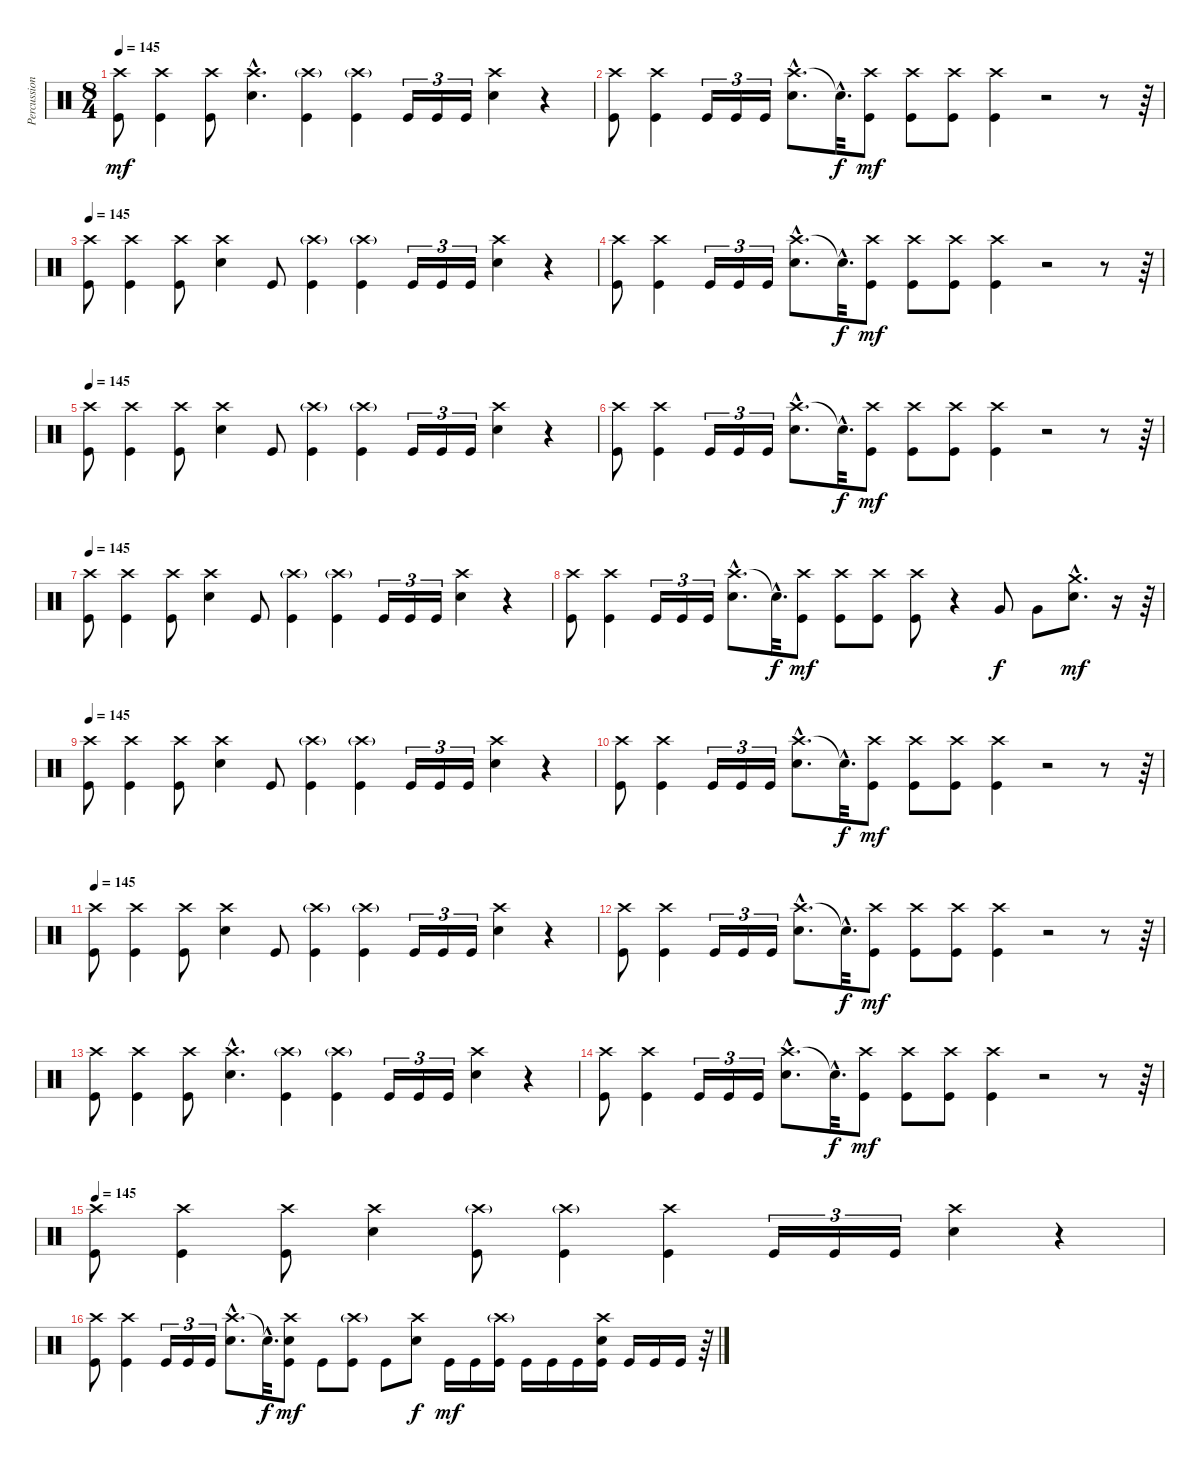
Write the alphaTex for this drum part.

\track ("Percussion" "Percussion") {instrument percussion}
\staff {score}
\articulation defaults
\ts (8 4)
\tempo 177
\tempo 145
\clef neutral
\ks c
("Crash high (hit)" "Kick (hit)").8{dy mf} ("Crash high (hit)" "Kick (hit)").4 ("Crash high (hit)" "Kick (hit)").8 ("Crash high (hit)"{hac} "Electric Snare (hit)"{hac}).4{d} ("Crash high (hit)"{g} "Kick (hit)").4 ("Crash high (hit)"{g} "Kick (hit)").4 "Kick (hit)".16{tu (3 2)} "Kick (hit)".16{tu (3 2)} "Kick (hit)".16{tu (3 2)} ("Crash high (hit)" "Electric Snare (hit)").4 r.4 |
("Crash high (hit)" "Kick (hit)").8 ("Crash high (hit)" "Kick (hit)").4 "Kick (hit)".16{tu (3 2)} "Kick (hit)".16{tu (3 2)} "Kick (hit)".16{tu (3 2)} ("Crash high (hit)"{hac} "Electric Snare (hit)"{hac}).8{d} "Snare (hit)"{hac t}.32{d dy f} ("Crash high (hit)" "Kick (hit)").8{dy mf} ("Crash high (hit)" "Kick (hit)").8 ("Crash high (hit)" "Kick (hit)").8 ("Crash high (hit)" "Kick (hit)").4 r.2 r.8 r.64 |
\tempo 145
("Crash high (hit)" "Kick (hit)").8 ("Crash high (hit)" "Kick (hit)").4 ("Crash high (hit)" "Kick (hit)").8 ("Crash high (hit)" "Electric Snare (hit)").4 "Kick (hit)".8 ("Crash high (hit)"{g} "Kick (hit)").4 ("Crash high (hit)"{g} "Kick (hit)").4 "Kick (hit)".16{tu (3 2)} "Kick (hit)".16{tu (3 2)} "Kick (hit)".16{tu (3 2)} ("Crash high (hit)" "Electric Snare (hit)").4 r.4 |
("Crash high (hit)" "Kick (hit)").8 ("Crash high (hit)" "Kick (hit)").4 "Kick (hit)".16{tu (3 2)} "Kick (hit)".16{tu (3 2)} "Kick (hit)".16{tu (3 2)} ("Crash high (hit)"{hac} "Electric Snare (hit)"{hac}).8{d} "Snare (hit)"{hac t}.32{d dy f} ("Crash high (hit)" "Kick (hit)").8{dy mf} ("Crash high (hit)" "Kick (hit)").8 ("Crash high (hit)" "Kick (hit)").8 ("Crash high (hit)" "Kick (hit)").4 r.2 r.8 r.64 |
\tempo 145
("Crash high (hit)" "Kick (hit)").8 ("Crash high (hit)" "Kick (hit)").4 ("Crash high (hit)" "Kick (hit)").8 ("Crash high (hit)" "Electric Snare (hit)").4 "Kick (hit)".8 ("Crash high (hit)"{g} "Kick (hit)").4 ("Crash high (hit)"{g} "Kick (hit)").4 "Kick (hit)".16{tu (3 2)} "Kick (hit)".16{tu (3 2)} "Kick (hit)".16{tu (3 2)} ("Crash high (hit)" "Electric Snare (hit)").4 r.4 |
("Crash high (hit)" "Kick (hit)").8 ("Crash high (hit)" "Kick (hit)").4 "Kick (hit)".16{tu (3 2)} "Kick (hit)".16{tu (3 2)} "Kick (hit)".16{tu (3 2)} ("Crash high (hit)"{hac} "Electric Snare (hit)"{hac}).8{d} "Snare (hit)"{hac t}.32{d dy f} ("Crash high (hit)" "Kick (hit)").8{dy mf} ("Crash high (hit)" "Kick (hit)").8 ("Crash high (hit)" "Kick (hit)").8 ("Crash high (hit)" "Kick (hit)").4 r.2 r.8 r.64 |
\tempo 145
("Crash high (hit)" "Kick (hit)").8 ("Crash high (hit)" "Kick (hit)").4 ("Crash high (hit)" "Kick (hit)").8 ("Crash high (hit)" "Electric Snare (hit)").4 "Kick (hit)".8 ("Crash high (hit)"{g} "Kick (hit)").4 ("Crash high (hit)"{g} "Kick (hit)").4 "Kick (hit)".16{tu (3 2)} "Kick (hit)".16{tu (3 2)} "Kick (hit)".16{tu (3 2)} ("Crash high (hit)" "Electric Snare (hit)").4 r.4 |
("Crash high (hit)" "Kick (hit)").8 ("Crash high (hit)" "Kick (hit)").4 "Kick (hit)".16{tu (3 2)} "Kick (hit)".16{tu (3 2)} "Kick (hit)".16{tu (3 2)} ("Crash high (hit)"{hac} "Electric Snare (hit)"{hac}).8{d} "Snare (hit)"{hac t}.32{d dy f} ("Crash high (hit)" "Kick (hit)").8{dy mf} ("Crash high (hit)" "Kick (hit)").8 ("Crash high (hit)" "Kick (hit)").8 ("Crash high (hit)" "Kick (hit)").8 r.4 "Very Low Tom (hit)".8{dy f} "Very Low Tom (hit)".8 ("Crash medium (hit)"{hac} "Electric Snare (hit)"{hac}).8{d dy mf} r.16 r.64 |
\tempo 145
("Crash high (hit)" "Kick (hit)").8 ("Crash high (hit)" "Kick (hit)").4 ("Crash high (hit)" "Kick (hit)").8 ("Crash high (hit)" "Electric Snare (hit)").4 "Kick (hit)".8 ("Crash high (hit)"{g} "Kick (hit)").4 ("Crash high (hit)"{g} "Kick (hit)").4 "Kick (hit)".16{tu (3 2)} "Kick (hit)".16{tu (3 2)} "Kick (hit)".16{tu (3 2)} ("Crash high (hit)" "Electric Snare (hit)").4 r.4 |
("Crash high (hit)" "Kick (hit)").8 ("Crash high (hit)" "Kick (hit)").4 "Kick (hit)".16{tu (3 2)} "Kick (hit)".16{tu (3 2)} "Kick (hit)".16{tu (3 2)} ("Crash high (hit)"{hac} "Electric Snare (hit)"{hac}).8{d} "Snare (hit)"{hac t}.32{d dy f} ("Crash high (hit)" "Kick (hit)").8{dy mf} ("Crash high (hit)" "Kick (hit)").8 ("Crash high (hit)" "Kick (hit)").8 ("Crash high (hit)" "Kick (hit)").4 r.2 r.8 r.64 |
\tempo 145
("Crash high (hit)" "Kick (hit)").8 ("Crash high (hit)" "Kick (hit)").4 ("Crash high (hit)" "Kick (hit)").8 ("Crash high (hit)" "Electric Snare (hit)").4 "Kick (hit)".8 ("Crash high (hit)"{g} "Kick (hit)").4 ("Crash high (hit)"{g} "Kick (hit)").4 "Kick (hit)".16{tu (3 2)} "Kick (hit)".16{tu (3 2)} "Kick (hit)".16{tu (3 2)} ("Crash high (hit)" "Electric Snare (hit)").4 r.4 |
("Crash high (hit)" "Kick (hit)").8 ("Crash high (hit)" "Kick (hit)").4 "Kick (hit)".16{tu (3 2)} "Kick (hit)".16{tu (3 2)} "Kick (hit)".16{tu (3 2)} ("Crash high (hit)"{hac} "Electric Snare (hit)"{hac}).8{d} "Snare (hit)"{hac t}.32{d dy f} ("Crash high (hit)" "Kick (hit)").8{dy mf} ("Crash high (hit)" "Kick (hit)").8 ("Crash high (hit)" "Kick (hit)").8 ("Crash high (hit)" "Kick (hit)").4 r.2 r.8 r.64 |
("Crash high (hit)" "Kick (hit)").8 ("Crash high (hit)" "Kick (hit)").4 ("Crash high (hit)" "Kick (hit)").8 ("Crash high (hit)"{hac} "Electric Snare (hit)"{hac}).4{d} ("Crash high (hit)"{g} "Kick (hit)").4 ("Crash high (hit)"{g} "Kick (hit)").4 "Kick (hit)".16{tu (3 2)} "Kick (hit)".16{tu (3 2)} "Kick (hit)".16{tu (3 2)} ("Crash high (hit)" "Electric Snare (hit)").4 r.4 |
("Crash high (hit)" "Kick (hit)").8 ("Crash high (hit)" "Kick (hit)").4 "Kick (hit)".16{tu (3 2)} "Kick (hit)".16{tu (3 2)} "Kick (hit)".16{tu (3 2)} ("Crash high (hit)"{hac} "Electric Snare (hit)"{hac}).8{d} "Snare (hit)"{hac t}.32{d dy f} ("Crash high (hit)" "Kick (hit)").8{dy mf} ("Crash high (hit)" "Kick (hit)").8 ("Crash high (hit)" "Kick (hit)").8 ("Crash high (hit)" "Kick (hit)").4 r.2 r.8 r.64 |
\tempo 145
("Crash high (hit)" "Kick (hit)").8 ("Crash high (hit)" "Kick (hit)").4 ("Crash high (hit)" "Kick (hit)").8 ("Crash high (hit)" "Electric Snare (hit)").4 ("Crash high (hit)"{g} "Kick (hit)").8 ("Crash high (hit)"{g} "Kick (hit)").4 ("Crash high (hit)" "Kick (hit)").4 "Kick (hit)".16{tu (3 2)} "Kick (hit)".16{tu (3 2)} "Kick (hit)".16{tu (3 2)} ("Crash high (hit)" "Electric Snare (hit)").4 r.4 |
("Crash high (hit)" "Kick (hit)").8 ("Crash high (hit)" "Kick (hit)").4 "Kick (hit)".16{tu (3 2)} "Kick (hit)".16{tu (3 2)} "Kick (hit)".16{tu (3 2)} ("Crash high (hit)"{hac} "Electric Snare (hit)"{hac}).8{d} "Snare (hit)"{hac t}.32{d dy f} ("Crash high (hit)" "Electric Snare (hit)" "Kick (hit)").8{dy mf} "Kick (hit)".8 ("Crash high (hit)"{g} "Kick (hit)").8 "Kick (hit)".8 ("Crash high (hit)" "Electric Snare (hit)").8{dy f} "Kick (hit)".16{dy mf} "Kick (hit)".16 ("Crash high (hit)"{g} "Kick (hit)").16 "Kick (hit)".16 "Kick (hit)".16 "Kick (hit)".16 ("Crash high (hit)" "Electric Snare (hit)" "Kick (hit)").16 "Kick (hit)".16 "Kick (hit)".16 "Kick (hit)".16 r.64
